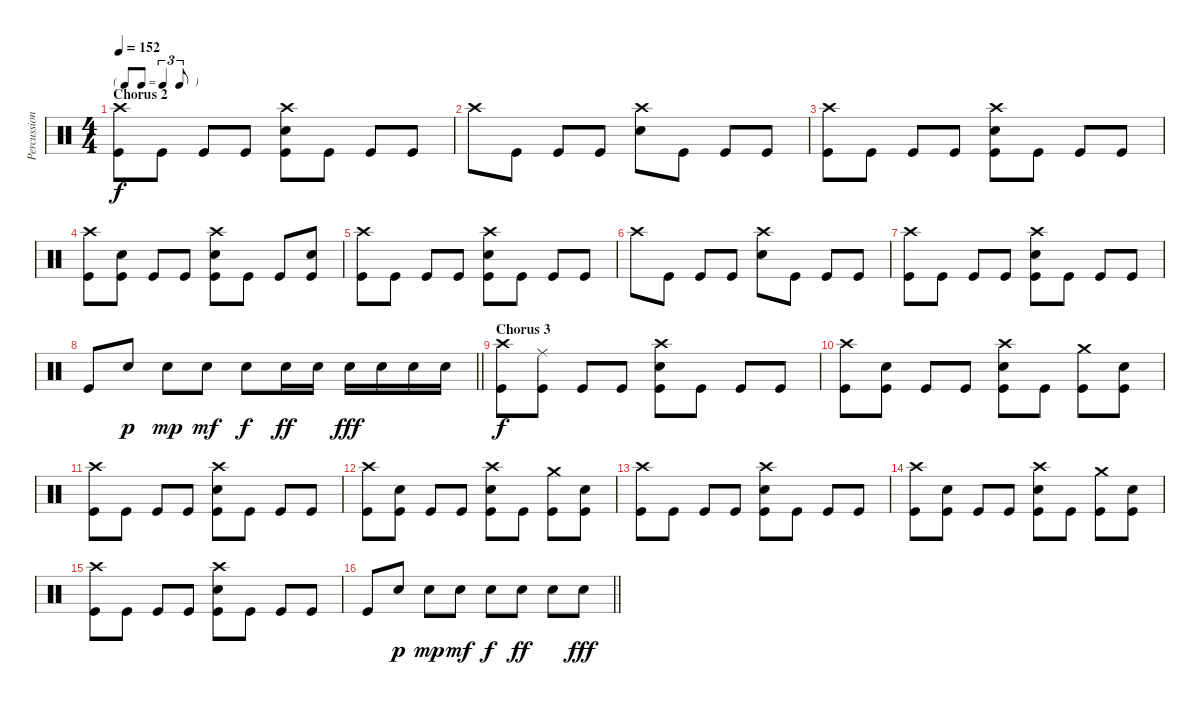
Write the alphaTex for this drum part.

\track ("Percussion" "Percussion") {instrument percussion}
\staff {score}
\articulation defaults
\ts (4 4)
\tf triplet8th
\section ("" "Chorus 2")
\tempo 152
\clef neutral
\ks c
("Crash high (hit)" "Kick (hit)").8{dy f} "Kick (hit)".8 "Kick (hit)".8 "Kick (hit)".8 ("Crash high (hit)" "Snare (hit) 2" "Kick (hit)").8 "Kick (hit)".8 "Kick (hit)".8 "Kick (hit)".8 |
"Crash high (hit)".8 "Kick (hit)".8 "Kick (hit)".8 "Kick (hit)".8 ("Snare (hit) 2" "Crash high (hit)").8 "Kick (hit)".8 "Kick (hit)".8 "Kick (hit)".8 |
("Crash high (hit)" "Kick (hit)").8 "Kick (hit)".8 "Kick (hit)".8 "Kick (hit)".8 ("Crash high (hit)" "Snare (hit) 2" "Kick (hit)").8 "Kick (hit)".8 "Kick (hit)".8 "Kick (hit)".8 |
("Crash high (hit)" "Kick (hit)").8 ("Snare (hit) 2" "Kick (hit)").8 "Kick (hit)".8 "Kick (hit)".8 ("Snare (hit) 2" "Crash high (hit)" "Kick (hit)").8 "Kick (hit)".8 "Kick (hit)".8 ("Snare (hit) 2" "Kick (hit)").8 |
("Crash high (hit)" "Kick (hit)").8 "Kick (hit)".8 "Kick (hit)".8 "Kick (hit)".8 ("Crash high (hit)" "Snare (hit) 2" "Kick (hit)").8 "Kick (hit)".8 "Kick (hit)".8 "Kick (hit)".8 |
"Crash high (hit)".8 "Kick (hit)".8 "Kick (hit)".8 "Kick (hit)".8 ("Snare (hit) 2" "Crash high (hit)").8 "Kick (hit)".8 "Kick (hit)".8 "Kick (hit)".8 |
("Crash high (hit)" "Kick (hit)").8 "Kick (hit)".8 "Kick (hit)".8 "Kick (hit)".8 ("Crash high (hit)" "Snare (hit) 2" "Kick (hit)").8 "Kick (hit)".8 "Kick (hit)".8 "Kick (hit)".8 |
\barLineRight lightlight "Kick (hit)".8 "Snare (hit) 2".8{dy p} "Snare (hit) 2".8{dy mp} "Snare (hit) 2".8{dy mf} "Snare (hit) 2".8{dy f} "Snare (hit) 2".16{dy ff} "Snare (hit) 2".16 "Snare (hit) 2".16{dy fff} "Snare (hit) 2".16 "Snare (hit) 2".16 "Snare (hit) 2".16
|
\section ("" "Chorus 3")
("Crash high (hit)" "Kick (hit)").8{dy f} ("Ride (middle)" "Kick (hit)").8 "Kick (hit)".8 "Kick (hit)".8 ("Crash high (hit)" "Snare (hit) 2" "Kick (hit)").8 "Kick (hit)".8 "Kick (hit)".8 "Kick (hit)".8 |
("Crash high (hit)" "Kick (hit)").8 ("Snare (hit) 2" "Kick (hit)").8 "Kick (hit)".8 "Kick (hit)".8 ("Snare (hit) 2" "Crash high (hit)" "Kick (hit)").8 "Kick (hit)".8 ("Crash medium (hit)" "Kick (hit)").8 ("Snare (hit) 2" "Kick (hit)").8 |
("Crash high (hit)" "Kick (hit)").8 "Kick (hit)".8 "Kick (hit)".8 "Kick (hit)".8 ("Crash high (hit)" "Snare (hit) 2" "Kick (hit)").8 "Kick (hit)".8 "Kick (hit)".8 "Kick (hit)".8 |
("Crash high (hit)" "Kick (hit)").8 ("Snare (hit) 2" "Kick (hit)").8 "Kick (hit)".8 "Kick (hit)".8 ("Snare (hit) 2" "Crash high (hit)" "Kick (hit)").8 "Kick (hit)".8 ("Crash medium (hit)" "Kick (hit)").8 ("Snare (hit) 2" "Kick (hit)").8 |
("Crash high (hit)" "Kick (hit)").8 "Kick (hit)".8 "Kick (hit)".8 "Kick (hit)".8 ("Crash high (hit)" "Snare (hit) 2" "Kick (hit)").8 "Kick (hit)".8 "Kick (hit)".8 "Kick (hit)".8 |
("Crash high (hit)" "Kick (hit)").8 ("Snare (hit) 2" "Kick (hit)").8 "Kick (hit)".8 "Kick (hit)".8 ("Snare (hit) 2" "Crash high (hit)" "Kick (hit)").8 "Kick (hit)".8 ("Crash medium (hit)" "Kick (hit)").8 ("Snare (hit) 2" "Kick (hit)").8 |
("Crash high (hit)" "Kick (hit)").8 "Kick (hit)".8 "Kick (hit)".8 "Kick (hit)".8 ("Crash high (hit)" "Snare (hit) 2" "Kick (hit)").8 "Kick (hit)".8 "Kick (hit)".8 "Kick (hit)".8 |
\barLineRight lightlight "Kick (hit)".8 "Snare (hit) 2".8{dy p} "Snare (hit) 2".8{dy mp} "Snare (hit) 2".8{dy mf} "Snare (hit) 2".8{dy f} "Snare (hit) 2".8{dy ff} "Snare (hit) 2".8 "Snare (hit) 2".8{dy fff}
